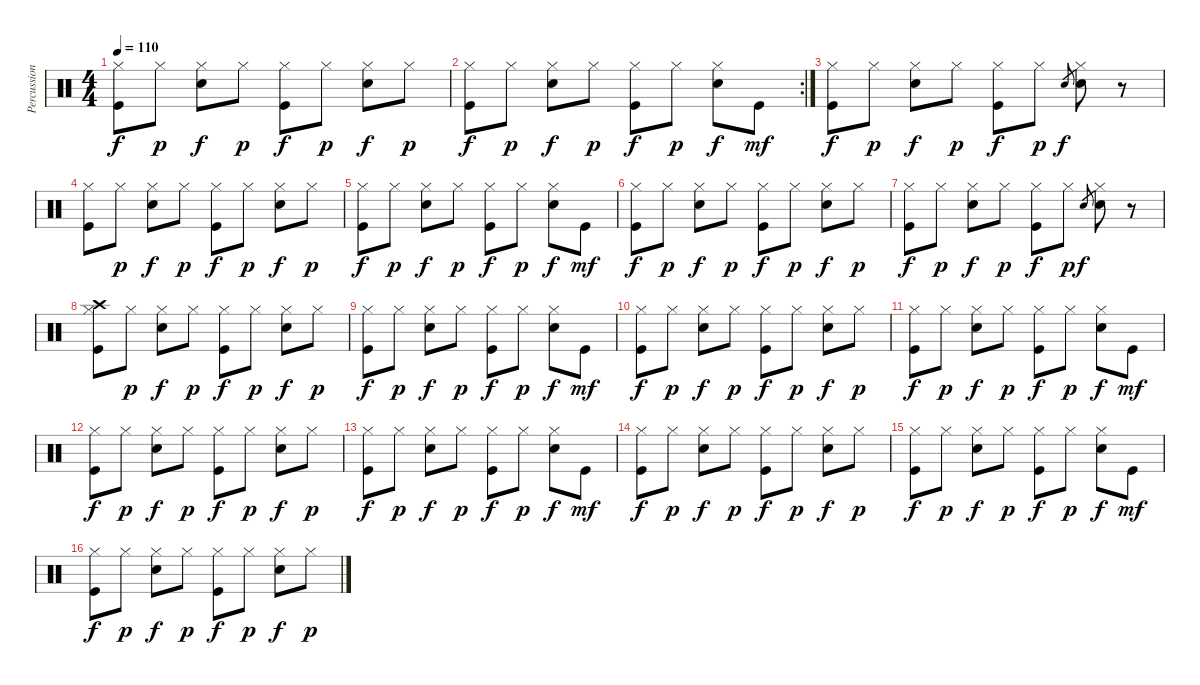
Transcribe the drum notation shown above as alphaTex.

\track ("Percussions" "Percussion") {instrument percussion}
\staff {score}
\articulation defaults
\ts (4 4)
\tempo 110
\clef neutral
\ks c
("Kick (hit)" "Hi-Hat (closed)").8{dy f} "Hi-Hat (closed)".8{dy p} ("Snare (hit) 2" "Hi-Hat (closed)").8{dy f} "Hi-Hat (closed)".8{dy p} ("Kick (hit)" "Hi-Hat (closed)").8{dy f} "Hi-Hat (closed)".8{dy p} ("Snare (hit) 2" "Hi-Hat (closed)").8{dy f} "Hi-Hat (closed)".8{dy p} |
\rc 2
("Kick (hit)" "Hi-Hat (closed)").8{dy f} "Hi-Hat (closed)".8{dy p} ("Snare (hit) 2" "Hi-Hat (closed)").8{dy f} "Hi-Hat (closed)".8{dy p} ("Kick (hit)" "Hi-Hat (closed)").8{dy f} "Hi-Hat (closed)".8{dy p} ("Snare (hit) 2" "Hi-Hat (closed)").8{dy f} "Kick (hit)".8{dy mf} |
("Kick (hit)" "Hi-Hat (closed)").8{dy f} "Hi-Hat (closed)".8{dy p} ("Snare (hit) 2" "Hi-Hat (closed)").8{dy f} "Hi-Hat (closed)".8{dy p} ("Kick (hit)" "Hi-Hat (closed)").8{dy f} "Hi-Hat (closed)".8{dy p} "Snare (hit) 2".8{gr dy f} ("Snare (hit) 2" "Hi-Hat (closed)").8 r.8 |
("Kick (hit)" "Hi-Hat (closed)").8{volume 10} "Hi-Hat (closed)".8{dy p} ("Snare (hit) 2" "Hi-Hat (closed)").8{dy f} "Hi-Hat (closed)".8{dy p} ("Kick (hit)" "Hi-Hat (closed)").8{dy f} "Hi-Hat (closed)".8{dy p} ("Snare (hit) 2" "Hi-Hat (closed)").8{dy f} "Hi-Hat (closed)".8{dy p} |
("Kick (hit)" "Hi-Hat (closed)").8{dy f} "Hi-Hat (closed)".8{dy p} ("Snare (hit) 2" "Hi-Hat (closed)").8{dy f} "Hi-Hat (closed)".8{dy p} ("Kick (hit)" "Hi-Hat (closed)").8{dy f} "Hi-Hat (closed)".8{dy p} ("Snare (hit) 2" "Hi-Hat (closed)").8{dy f} "Kick (hit)".8{dy mf} |
("Kick (hit)" "Hi-Hat (closed)").8{dy f} "Hi-Hat (closed)".8{dy p} ("Snare (hit) 2" "Hi-Hat (closed)").8{dy f} "Hi-Hat (closed)".8{dy p} ("Kick (hit)" "Hi-Hat (closed)").8{dy f} "Hi-Hat (closed)".8{dy p} ("Snare (hit) 2" "Hi-Hat (closed)").8{dy f} "Hi-Hat (closed)".8{dy p} |
("Kick (hit)" "Hi-Hat (closed)").8{dy f} "Hi-Hat (closed)".8{dy p} ("Snare (hit) 2" "Hi-Hat (closed)").8{dy f} "Hi-Hat (closed)".8{dy p} ("Kick (hit)" "Hi-Hat (closed)").8{dy f} "Hi-Hat (closed)".8{dy p} "Snare (hit) 2".8{gr dy f} ("Snare (hit) 2" "Hi-Hat (closed)").8 r.8 |
("Kick (hit)" "Hi-Hat (closed)" "Crash high (hit)").8{volume 16} "Hi-Hat (closed)".8{dy p} ("Snare (hit) 2" "Hi-Hat (closed)").8{dy f} "Hi-Hat (closed)".8{dy p} ("Kick (hit)" "Hi-Hat (closed)").8{dy f} "Hi-Hat (closed)".8{dy p} ("Snare (hit) 2" "Hi-Hat (closed)").8{dy f} "Hi-Hat (closed)".8{dy p} |
("Kick (hit)" "Hi-Hat (closed)").8{dy f} "Hi-Hat (closed)".8{dy p} ("Snare (hit) 2" "Hi-Hat (closed)").8{dy f} "Hi-Hat (closed)".8{dy p} ("Kick (hit)" "Hi-Hat (closed)").8{dy f} "Hi-Hat (closed)".8{dy p} ("Snare (hit) 2" "Hi-Hat (closed)").8{dy f} "Kick (hit)".8{dy mf} |
("Kick (hit)" "Hi-Hat (closed)").8{dy f} "Hi-Hat (closed)".8{dy p} ("Snare (hit) 2" "Hi-Hat (closed)").8{dy f} "Hi-Hat (closed)".8{dy p} ("Kick (hit)" "Hi-Hat (closed)").8{dy f} "Hi-Hat (closed)".8{dy p} ("Snare (hit) 2" "Hi-Hat (closed)").8{dy f} "Hi-Hat (closed)".8{dy p} |
("Kick (hit)" "Hi-Hat (closed)").8{dy f} "Hi-Hat (closed)".8{dy p} ("Snare (hit) 2" "Hi-Hat (closed)").8{dy f} "Hi-Hat (closed)".8{dy p} ("Kick (hit)" "Hi-Hat (closed)").8{dy f} "Hi-Hat (closed)".8{dy p} ("Snare (hit) 2" "Hi-Hat (closed)").8{dy f} "Kick (hit)".8{dy mf} |
("Kick (hit)" "Hi-Hat (closed)").8{dy f} "Hi-Hat (closed)".8{dy p} ("Snare (hit) 2" "Hi-Hat (closed)").8{dy f} "Hi-Hat (closed)".8{dy p} ("Kick (hit)" "Hi-Hat (closed)").8{dy f} "Hi-Hat (closed)".8{dy p} ("Snare (hit) 2" "Hi-Hat (closed)").8{dy f} "Hi-Hat (closed)".8{dy p} |
("Kick (hit)" "Hi-Hat (closed)").8{dy f} "Hi-Hat (closed)".8{dy p} ("Snare (hit) 2" "Hi-Hat (closed)").8{dy f} "Hi-Hat (closed)".8{dy p} ("Kick (hit)" "Hi-Hat (closed)").8{dy f} "Hi-Hat (closed)".8{dy p} ("Snare (hit) 2" "Hi-Hat (closed)").8{dy f} "Kick (hit)".8{dy mf} |
("Kick (hit)" "Hi-Hat (closed)").8{dy f} "Hi-Hat (closed)".8{dy p} ("Snare (hit) 2" "Hi-Hat (closed)").8{dy f} "Hi-Hat (closed)".8{dy p} ("Kick (hit)" "Hi-Hat (closed)").8{dy f} "Hi-Hat (closed)".8{dy p} ("Snare (hit) 2" "Hi-Hat (closed)").8{dy f} "Hi-Hat (closed)".8{dy p} |
("Kick (hit)" "Hi-Hat (closed)").8{dy f} "Hi-Hat (closed)".8{dy p} ("Snare (hit) 2" "Hi-Hat (closed)").8{dy f} "Hi-Hat (closed)".8{dy p} ("Kick (hit)" "Hi-Hat (closed)").8{dy f} "Hi-Hat (closed)".8{dy p} ("Snare (hit) 2" "Hi-Hat (closed)").8{dy f} "Kick (hit)".8{dy mf} |
("Kick (hit)" "Hi-Hat (closed)").8{dy f} "Hi-Hat (closed)".8{dy p} ("Snare (hit) 2" "Hi-Hat (closed)").8{dy f} "Hi-Hat (closed)".8{dy p} ("Kick (hit)" "Hi-Hat (closed)").8{dy f} "Hi-Hat (closed)".8{dy p} ("Snare (hit) 2" "Hi-Hat (closed)").8{dy f} "Hi-Hat (closed)".8{dy p}
